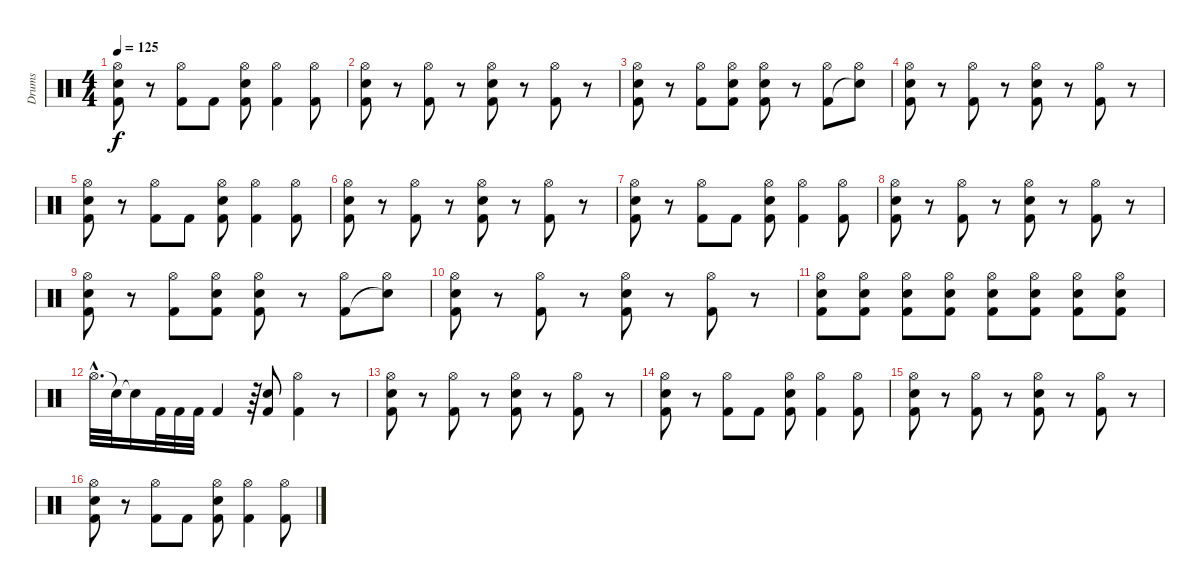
\track ("Drums" "Drums") {instrument percussion}
\staff {score}
\articulation defaults
\ts (4 4)
\tempo 125
\clef neutral
\ks c
("Kick (hit) 2" "Snare (hit) 2" "Hi-Hat (open)").8{dy f} r.8 ("Kick (hit) 2" "Hi-Hat (open)").8 "Kick (hit) 2".8 ("Kick (hit) 2" "Snare (hit) 2" "Hi-Hat (open)").8 ("Kick (hit) 2" "Hi-Hat (open)").4 ("Kick (hit) 2" "Hi-Hat (open)").8 |
("Kick (hit) 2" "Snare (hit) 2" "Hi-Hat (open)").8 r.8 ("Kick (hit) 2" "Hi-Hat (open)").8 r.8 ("Kick (hit) 2" "Snare (hit) 2" "Hi-Hat (open)").8 r.8 ("Kick (hit) 2" "Hi-Hat (open)").8 r.8 |
("Kick (hit) 2" "Snare (hit) 2" "Hi-Hat (open)").8 r.8 ("Kick (hit) 2" "Hi-Hat (open)").8 ("Kick (hit) 2" "Snare (hit) 2" "Hi-Hat (open)").8 ("Kick (hit) 2" "Snare (hit) 2" "Hi-Hat (open)").8 r.8 ("Kick (hit) 2" "Hi-Hat (open)").8 ("Snare (hit)"{t} "Hi-Hat (open)").8 |
("Kick (hit) 2" "Snare (hit) 2" "Hi-Hat (open)").8 r.8 ("Kick (hit) 2" "Hi-Hat (open)").8 r.8 ("Kick (hit) 2" "Snare (hit) 2" "Hi-Hat (open)").8 r.8 ("Kick (hit) 2" "Hi-Hat (open)").8 r.8 |
("Kick (hit) 2" "Snare (hit) 2" "Hi-Hat (open)").8 r.8 ("Kick (hit) 2" "Hi-Hat (open)").8 "Kick (hit) 2".8 ("Kick (hit) 2" "Snare (hit) 2" "Hi-Hat (open)").8 ("Kick (hit) 2" "Hi-Hat (open)").4 ("Kick (hit) 2" "Hi-Hat (open)").8 |
("Kick (hit) 2" "Snare (hit) 2" "Hi-Hat (open)").8 r.8 ("Kick (hit) 2" "Hi-Hat (open)").8 r.8 ("Kick (hit) 2" "Snare (hit) 2" "Hi-Hat (open)").8 r.8 ("Kick (hit) 2" "Hi-Hat (open)").8 r.8 |
("Kick (hit) 2" "Snare (hit) 2" "Hi-Hat (open)").8 r.8 ("Kick (hit) 2" "Hi-Hat (open)").8 "Kick (hit) 2".8 ("Kick (hit) 2" "Snare (hit) 2" "Hi-Hat (open)").8 ("Kick (hit) 2" "Hi-Hat (open)").4 ("Kick (hit) 2" "Hi-Hat (open)").8 |
("Kick (hit) 2" "Snare (hit) 2" "Hi-Hat (open)").8 r.8 ("Kick (hit) 2" "Hi-Hat (open)").8 r.8 ("Kick (hit) 2" "Snare (hit) 2" "Hi-Hat (open)").8 r.8 ("Kick (hit) 2" "Hi-Hat (open)").8 r.8 |
("Kick (hit) 2" "Snare (hit) 2" "Hi-Hat (open)").8 r.8 ("Kick (hit) 2" "Hi-Hat (open)").8 ("Kick (hit) 2" "Snare (hit) 2" "Hi-Hat (open)").8 ("Kick (hit) 2" "Snare (hit) 2" "Hi-Hat (open)").8 r.8 ("Kick (hit) 2" "Hi-Hat (open)").8 ("Snare (hit)"{t} "Hi-Hat (open)").8 |
("Kick (hit) 2" "Snare (hit) 2" "Hi-Hat (open)").8 r.8 ("Kick (hit) 2" "Hi-Hat (open)").8 r.8 ("Kick (hit) 2" "Snare (hit) 2" "Hi-Hat (open)").8 r.8 ("Kick (hit) 2" "Hi-Hat (open)").8 r.8 |
("Kick (hit) 2" "Snare (hit) 2" "Hi-Hat (open)").8 ("Kick (hit) 2" "Snare (hit) 2" "Hi-Hat (open)").8 ("Kick (hit) 2" "Snare (hit) 2" "Hi-Hat (open)").8 ("Kick (hit) 2" "Snare (hit) 2" "Hi-Hat (open)").8 ("Kick (hit) 2" "Snare (hit) 2" "Hi-Hat (open)").8 ("Kick (hit) 2" "Snare (hit) 2" "Hi-Hat (open)").8 ("Kick (hit) 2" "Snare (hit) 2" "Hi-Hat (open)").8 ("Kick (hit) 2" "Snare (hit) 2" "Hi-Hat (open)").8 |
"Hi-Hat (open)"{hac}.32{d} "Snare (hit)"{t}.32 "Snare (hit)"{t}.16 "Kick (hit) 2".32 "Kick (hit) 2".32 "Kick (hit) 2".32 "Kick (hit) 2".4 r.64 ("Kick (hit) 2" "Snare (hit) 2").8 ("Kick (hit) 2" "Hi-Hat (open)").4 r.8 |
("Kick (hit) 2" "Snare (hit) 2" "Hi-Hat (open)").8 r.8 ("Kick (hit) 2" "Hi-Hat (open)").8 r.8 ("Kick (hit) 2" "Snare (hit) 2" "Hi-Hat (open)").8 r.8 ("Kick (hit) 2" "Hi-Hat (open)").8 r.8 |
("Kick (hit) 2" "Snare (hit) 2" "Hi-Hat (open)").8 r.8 ("Kick (hit) 2" "Hi-Hat (open)").8 "Kick (hit) 2".8 ("Kick (hit) 2" "Snare (hit) 2" "Hi-Hat (open)").8 ("Kick (hit) 2" "Hi-Hat (open)").4 ("Kick (hit) 2" "Hi-Hat (open)").8 |
("Kick (hit) 2" "Snare (hit) 2" "Hi-Hat (open)").8 r.8 ("Kick (hit) 2" "Hi-Hat (open)").8 r.8 ("Kick (hit) 2" "Snare (hit) 2" "Hi-Hat (open)").8 r.8 ("Kick (hit) 2" "Hi-Hat (open)").8 r.8 |
("Kick (hit) 2" "Snare (hit) 2" "Hi-Hat (open)").8 r.8 ("Kick (hit) 2" "Hi-Hat (open)").8 "Kick (hit) 2".8 ("Kick (hit) 2" "Snare (hit) 2" "Hi-Hat (open)").8 ("Kick (hit) 2" "Hi-Hat (open)").4 ("Kick (hit) 2" "Hi-Hat (open)").8
